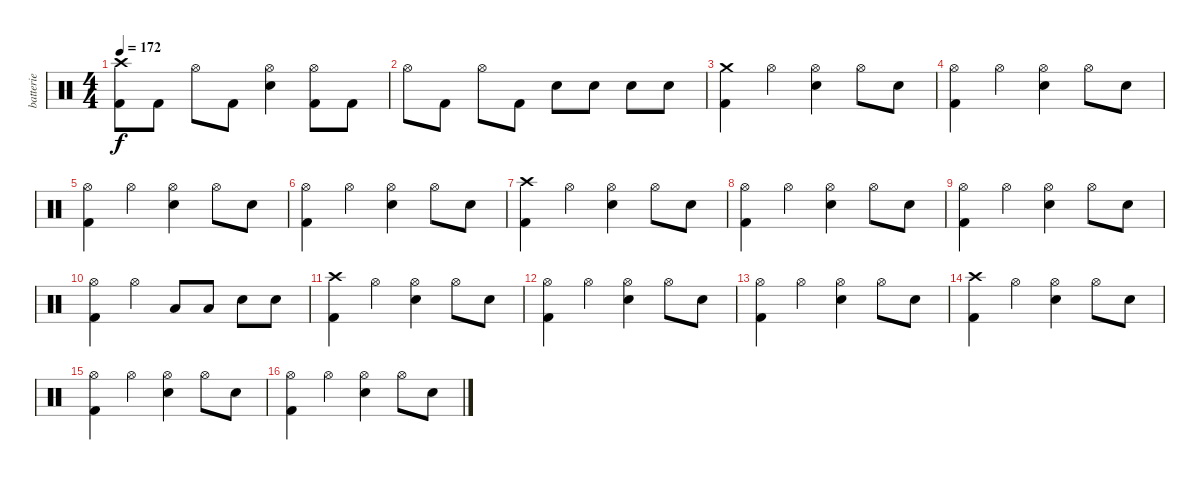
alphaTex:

\track ("batterie" "batterie") {instrument percussion}
\staff {score}
\articulation defaults
\ts (4 4)
\tempo 172
\clef neutral
\ks c
("Crash high (hit)" "Kick (hit) 2").8{dy f} "Kick (hit) 2".8 "Hi-Hat (open)".8 "Kick (hit) 2".8 ("Hi-Hat (open)" "Electric Snare (hit)").4 ("Hi-Hat (open)" "Kick (hit) 2").8 "Kick (hit) 2".8 |
"Hi-Hat (open)".8 "Kick (hit) 2".8 "Hi-Hat (open)".8 "Kick (hit) 2".8 "Electric Snare (hit)".8 "Electric Snare (hit)".8 "Electric Snare (hit)".8 "Electric Snare (hit)".8 |
("Crash medium (hit)" "Kick (hit) 2").4 "Hi-Hat (open)".4 ("Electric Snare (hit)" "Hi-Hat (open)").4 "Hi-Hat (open)".8 "Electric Snare (hit)".8 |
("Hi-Hat (open)" "Kick (hit) 2").4 "Hi-Hat (open)".4 ("Electric Snare (hit)" "Hi-Hat (open)").4 "Hi-Hat (open)".8 "Electric Snare (hit)".8 |
("Hi-Hat (open)" "Kick (hit) 2").4 "Hi-Hat (open)".4 ("Electric Snare (hit)" "Hi-Hat (open)").4 "Hi-Hat (open)".8 "Electric Snare (hit)".8 |
("Hi-Hat (open)" "Kick (hit) 2").4 "Hi-Hat (open)".4 ("Electric Snare (hit)" "Hi-Hat (open)").4 "Hi-Hat (open)".8 "Electric Snare (hit)".8 |
("Crash high (hit)" "Kick (hit) 2").4 "Hi-Hat (open)".4 ("Electric Snare (hit)" "Hi-Hat (open)").4 "Hi-Hat (open)".8 "Electric Snare (hit)".8 |
("Hi-Hat (open)" "Kick (hit) 2").4 "Hi-Hat (open)".4 ("Electric Snare (hit)" "Hi-Hat (open)").4 "Hi-Hat (open)".8 "Electric Snare (hit)".8 |
("Hi-Hat (open)" "Kick (hit) 2").4 "Hi-Hat (open)".4 ("Electric Snare (hit)" "Hi-Hat (open)").4 "Hi-Hat (open)".8 "Electric Snare (hit)".8 |
("Hi-Hat (open)" "Kick (hit) 2").4 "Hi-Hat (open)".4 "Low Tom (hit)".8 "Low Tom (hit)".8 "Electric Snare (hit)".8 "Electric Snare (hit)".8 |
("Crash high (hit)" "Kick (hit) 2").4 "Hi-Hat (open)".4 ("Electric Snare (hit)" "Hi-Hat (open)").4 "Hi-Hat (open)".8 "Electric Snare (hit)".8 |
("Hi-Hat (open)" "Kick (hit) 2").4 "Hi-Hat (open)".4 ("Electric Snare (hit)" "Hi-Hat (open)").4 "Hi-Hat (open)".8 "Electric Snare (hit)".8 |
("Hi-Hat (open)" "Kick (hit) 2").4 "Hi-Hat (open)".4 ("Electric Snare (hit)" "Hi-Hat (open)").4 "Hi-Hat (open)".8 "Electric Snare (hit)".8 |
("Crash high (hit)" "Kick (hit) 2").4 "Hi-Hat (open)".4 ("Electric Snare (hit)" "Hi-Hat (open)").4 "Hi-Hat (open)".8 "Electric Snare (hit)".8 |
("Hi-Hat (open)" "Kick (hit) 2").4 "Hi-Hat (open)".4 ("Electric Snare (hit)" "Hi-Hat (open)").4 "Hi-Hat (open)".8 "Electric Snare (hit)".8 |
("Hi-Hat (open)" "Kick (hit) 2").4 "Hi-Hat (open)".4 ("Electric Snare (hit)" "Hi-Hat (open)").4 "Hi-Hat (open)".8 "Electric Snare (hit)".8
